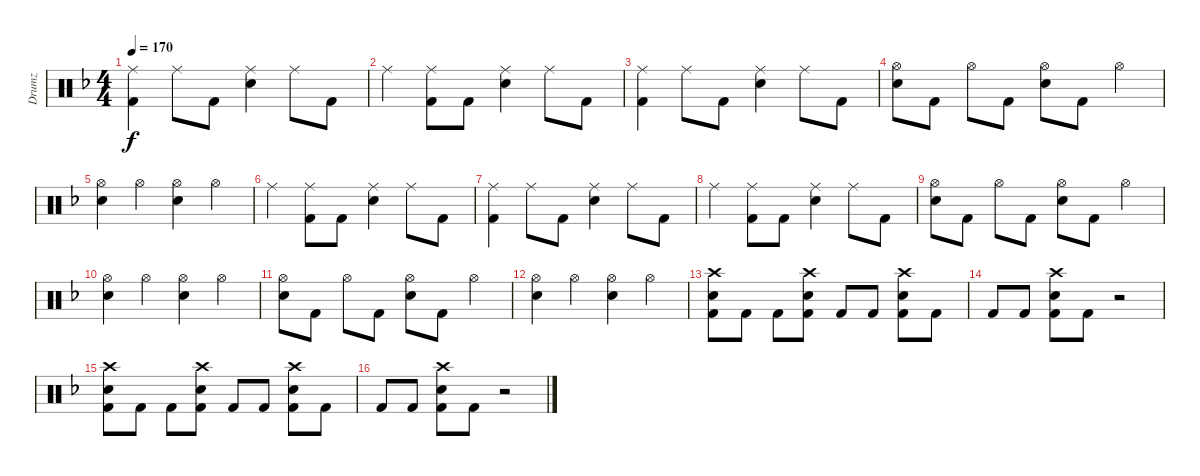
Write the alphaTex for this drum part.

\track ("Drumz" "Drumz") {instrument percussion}
\staff {score}
\articulation defaults
\ts (4 4)
\tempo 170
\clef neutral
\ks dminor
("Ride (middle)" "Kick (hit) 2").4{dy f} "Ride (middle)".8 "Kick (hit) 2".8 ("Ride (middle)" "Snare (hit) 2").4 "Ride (middle)".8 "Kick (hit) 2".8 |
"Ride (middle)".4 ("Kick (hit) 2" "Ride (middle)").8 "Kick (hit) 2".8 ("Ride (middle)" "Snare (hit) 2").4 "Ride (middle)".8 "Kick (hit) 2".8 |
("Ride (middle)" "Kick (hit) 2").4 "Ride (middle)".8 "Kick (hit) 2".8 ("Ride (middle)" "Snare (hit) 2").4 "Ride (middle)".8 "Kick (hit) 2".8 |
("Hi-Hat (open)" "Snare (hit) 2").8 "Kick (hit) 2".8 "Hi-Hat (open)".8 "Kick (hit) 2".8 ("Hi-Hat (open)" "Snare (hit) 2").8 "Kick (hit) 2".8 "Hi-Hat (open)".4 |
("Hi-Hat (open)" "Snare (hit) 2").4 "Hi-Hat (open)".4 ("Hi-Hat (open)" "Snare (hit) 2").4 "Hi-Hat (open)".4 |
"Ride (middle)".4 ("Kick (hit) 2" "Ride (middle)").8 "Kick (hit) 2".8 ("Ride (middle)" "Snare (hit) 2").4 "Ride (middle)".8 "Kick (hit) 2".8 |
("Ride (middle)" "Kick (hit) 2").4 "Ride (middle)".8 "Kick (hit) 2".8 ("Ride (middle)" "Snare (hit) 2").4 "Ride (middle)".8 "Kick (hit) 2".8 |
"Ride (middle)".4 ("Kick (hit) 2" "Ride (middle)").8 "Kick (hit) 2".8 ("Ride (middle)" "Snare (hit) 2").4 "Ride (middle)".8 "Kick (hit) 2".8 |
("Hi-Hat (open)" "Snare (hit) 2").8 "Kick (hit) 2".8 "Hi-Hat (open)".8 "Kick (hit) 2".8 ("Hi-Hat (open)" "Snare (hit) 2").8 "Kick (hit) 2".8 "Hi-Hat (open)".4 |
("Hi-Hat (open)" "Snare (hit) 2").4 "Hi-Hat (open)".4 ("Hi-Hat (open)" "Snare (hit) 2").4 "Hi-Hat (open)".4 |
("Hi-Hat (open)" "Snare (hit) 2").8 "Kick (hit) 2".8 "Hi-Hat (open)".8 "Kick (hit) 2".8 ("Hi-Hat (open)" "Snare (hit) 2").8 "Kick (hit) 2".8 "Hi-Hat (open)".4 |
("Hi-Hat (open)" "Snare (hit) 2").4 "Hi-Hat (open)".4 ("Hi-Hat (open)" "Snare (hit) 2").4 "Hi-Hat (open)".4 |
("Crash high (hit)" "Snare (hit) 2" "Kick (hit) 2").8 "Kick (hit) 2".8 "Kick (hit) 2".8 ("Crash high (hit)" "Snare (hit) 2" "Kick (hit) 2").8 "Kick (hit) 2".8 "Kick (hit) 2".8 ("Crash high (hit)" "Snare (hit)" "Kick (hit) 2").8 "Kick (hit) 2".8 |
"Kick (hit) 2".8 "Kick (hit) 2".8 ("Crash high (hit)" "Snare (hit) 2" "Kick (hit) 2").8 "Kick (hit) 2".8 r.2 |
("Crash high (hit)" "Snare (hit) 2" "Kick (hit) 2").8 "Kick (hit) 2".8 "Kick (hit) 2".8 ("Crash high (hit)" "Snare (hit) 2" "Kick (hit) 2").8 "Kick (hit) 2".8 "Kick (hit) 2".8 ("Crash high (hit)" "Snare (hit)" "Kick (hit) 2").8 "Kick (hit) 2".8 |
"Kick (hit) 2".8 "Kick (hit) 2".8 ("Crash high (hit)" "Snare (hit) 2" "Kick (hit) 2").8 "Kick (hit) 2".8 r.2
